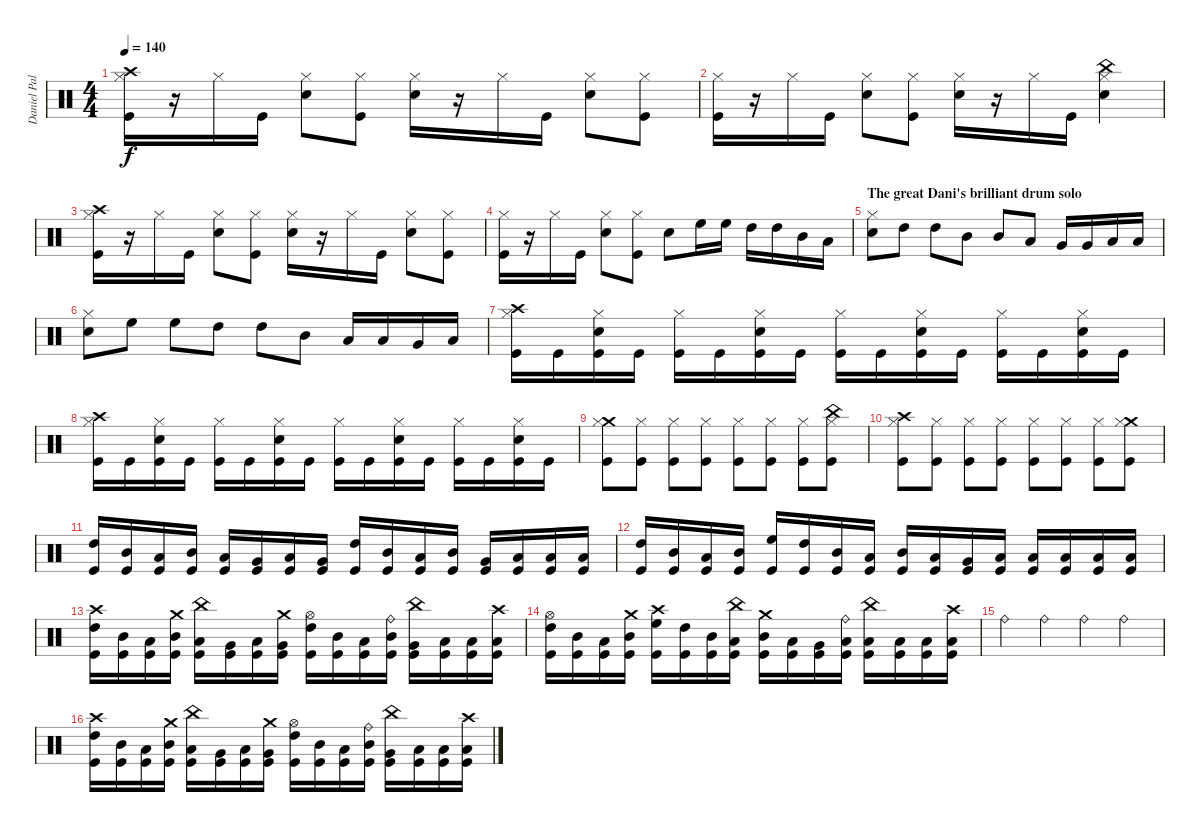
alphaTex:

\track ("Daniel Pal" "Daniel Pal") {instrument percussion}
\staff {score}
\articulation defaults
\ts (4 4)
\tempo 140
\clef neutral
\ks c
("Crash high (hit)" "Hi-Hat (closed)" "Kick (hit)").16{dy f} r.16 "Hi-Hat (closed)".16 "Kick (hit)".16 ("Hi-Hat (closed)" "Electric Snare (hit)").8 ("Hi-Hat (closed)" "Kick (hit)").8 ("Hi-Hat (closed)" "Electric Snare (hit)").16 r.16 "Hi-Hat (closed)".16 "Kick (hit)".16 ("Hi-Hat (closed)" "Electric Snare (hit)").8 ("Hi-Hat (closed)" "Kick (hit)").8 |
("Hi-Hat (closed)" "Kick (hit)").16 r.16 "Hi-Hat (closed)".16 "Kick (hit)".16 ("Hi-Hat (closed)" "Electric Snare (hit)").8 ("Hi-Hat (closed)" "Kick (hit)").8 ("Hi-Hat (closed)" "Electric Snare (hit)").16 r.16 "Hi-Hat (closed)".16 "Kick (hit)".16 ("China (hit)" "Hi-Hat (closed)" "Electric Snare (hit)").4 |
("Crash high (hit)" "Hi-Hat (closed)" "Kick (hit)").16 r.16 "Hi-Hat (closed)".16 "Kick (hit)".16 ("Hi-Hat (closed)" "Electric Snare (hit)").8 ("Hi-Hat (closed)" "Kick (hit)").8 ("Hi-Hat (closed)" "Electric Snare (hit)").16 r.16 "Hi-Hat (closed)".16 "Kick (hit)".16 ("Hi-Hat (closed)" "Electric Snare (hit)").8 ("Hi-Hat (closed)" "Kick (hit)").8 |
("Hi-Hat (closed)" "Kick (hit)").16 r.16 "Hi-Hat (closed)".16 "Kick (hit)".16 ("Hi-Hat (closed)" "Electric Snare (hit)").8 ("Hi-Hat (closed)" "Kick (hit)").8 "Electric Snare (hit)".8 "High Floor Tom (hit)".16 "High Floor Tom (hit)".16 "High Tom (hit)".16 "High Tom (hit)".16 "Mid Tom (hit)".16 "Low Tom (hit)".16 |
\section ("" "The great Dani's brilliant drum solo")
("Hi-Hat (closed)" "Electric Snare (hit)").8 "High Tom (hit)".8 "High Tom (hit)".8 "Mid Tom (hit)".8 "Mid Tom (hit)".8 "Low Tom (hit)".8 "Very Low Tom (hit)".16 "Very Low Tom (hit)".16 "Low Floor Tom (hit)".16 "Low Floor Tom (hit)".16 |
("Hi-Hat (closed)" "Electric Snare (hit)").8 "High Floor Tom (hit)".8 "High Floor Tom (hit)".8 "High Tom (hit)".8 "High Tom (hit)".8 "Mid Tom (hit)".8 "Low Tom (hit)".16 "Low Tom (hit)".16 "Very Low Tom (hit)".16 "Low Floor Tom (hit)".16 |
("Crash high (hit)" "Hi-Hat (closed)" "Kick (hit)").16 "Kick (hit)".16 ("Hi-Hat (closed)" "Electric Snare (hit)" "Kick (hit)").16 "Kick (hit)".16 ("Hi-Hat (closed)" "Kick (hit)").16 "Kick (hit)".16 ("Hi-Hat (closed)" "Electric Snare (hit)" "Kick (hit)").16 "Kick (hit)".16 ("Hi-Hat (closed)" "Kick (hit)").16 "Kick (hit)".16 ("Hi-Hat (closed)" "Electric Snare (hit)" "Kick (hit)").16 "Kick (hit)".16 ("Hi-Hat (closed)" "Kick (hit)").16 "Kick (hit)".16 ("Hi-Hat (closed)" "Electric Snare (hit)" "Kick (hit)").16 "Kick (hit)".16 |
("Crash high (hit)" "Hi-Hat (closed)" "Kick (hit)").16 "Kick (hit)".16 ("Hi-Hat (closed)" "Electric Snare (hit)" "Kick (hit)").16 "Kick (hit)".16 ("Hi-Hat (closed)" "Kick (hit)").16 "Kick (hit)".16 ("Hi-Hat (closed)" "Electric Snare (hit)" "Kick (hit)").16 "Kick (hit)".16 ("Hi-Hat (closed)" "Kick (hit)").16 "Kick (hit)".16 ("Hi-Hat (closed)" "Electric Snare (hit)" "Kick (hit)").16 "Kick (hit)".16 ("Hi-Hat (closed)" "Kick (hit)").16 "Kick (hit)".16 ("Hi-Hat (closed)" "Electric Snare (hit)" "Kick (hit)").16 "Kick (hit)".16 |
("Crash medium (hit)" "Hi-Hat (closed)" "Kick (hit)").8 ("Hi-Hat (closed)" "Kick (hit)").8 ("Hi-Hat (closed)" "Kick (hit)").8 ("Hi-Hat (closed)" "Kick (hit)").8 ("Hi-Hat (closed)" "Kick (hit)").8 ("Hi-Hat (closed)" "Kick (hit)").8 ("Hi-Hat (closed)" "Kick (hit)").8 ("China (hit)" "Hi-Hat (closed)" "Kick (hit)").8 |
("Crash high (hit)" "Hi-Hat (closed)" "Kick (hit)").8 ("Hi-Hat (closed)" "Kick (hit)").8 ("Hi-Hat (closed)" "Kick (hit)").8 ("Hi-Hat (closed)" "Kick (hit)").8 ("Hi-Hat (closed)" "Kick (hit)").8 ("Hi-Hat (closed)" "Kick (hit)").8 ("Hi-Hat (closed)" "Kick (hit)").8 ("Crash medium (hit)" "Hi-Hat (closed)" "Kick (hit)").8 |
("High Tom (hit)" "Kick (hit)").16 ("Mid Tom (hit)" "Kick (hit)").16 ("Low Tom (hit)" "Kick (hit)").16 ("Mid Tom (hit)" "Kick (hit)").16 ("Low Tom (hit)" "Kick (hit)").16 ("Very Low Tom (hit)" "Kick (hit)").16 ("Low Floor Tom (hit)" "Kick (hit)").16 ("Very Low Tom (hit)" "Kick (hit)").16 ("High Tom (hit)" "Kick (hit)").16 ("Mid Tom (hit)" "Kick (hit)").16 ("Low Tom (hit)" "Kick (hit)").16 ("Mid Tom (hit)" "Kick (hit)").16 ("Very Low Tom (hit)" "Kick (hit)").16 ("Low Floor Tom (hit)" "Kick (hit)").16 ("Low Floor Tom (hit)" "Kick (hit)").16 ("Low Floor Tom (hit)" "Kick (hit)").16 |
("High Tom (hit)" "Kick (hit)").16 ("Mid Tom (hit)" "Kick (hit)").16 ("Low Tom (hit)" "Kick (hit)").16 ("Mid Tom (hit)" "Kick (hit)").16 ("High Floor Tom (hit)" "Kick (hit)").16 ("High Tom (hit)" "Kick (hit)").16 ("Mid Tom (hit)" "Kick (hit)").16 ("Low Tom (hit)" "Kick (hit)").16 ("Mid Tom (hit)" "Kick (hit)").16 ("Low Tom (hit)" "Kick (hit)").16 ("Very Low Tom (hit)" "Kick (hit)").16 ("Low Floor Tom (hit)" "Kick (hit)").16 ("Low Floor Tom (hit)" "Kick (hit)").16 ("Low Floor Tom (hit)" "Kick (hit)").16 ("Low Floor Tom (hit)" "Kick (hit)").16 ("Low Floor Tom (hit)" "Kick (hit)").16 |
("Crash high (hit)" "High Tom (hit)" "Kick (hit)").16 ("Mid Tom (hit)" "Kick (hit)").16 ("Low Tom (hit)" "Kick (hit)").16 ("Crash medium (hit)" "Mid Tom (hit)" "Kick (hit)").16 ("China (hit)" "Low Tom (hit)" "Kick (hit)").16 ("Very Low Tom (hit)" "Kick (hit)").16 ("Low Floor Tom (hit)" "Kick (hit)").16 ("Crash medium (hit)" "Very Low Tom (hit)" "Kick (hit)").16 ("Hi-Hat (open)" "High Tom (hit)" "Kick (hit)").16 ("Mid Tom (hit)" "Kick (hit)").16 ("Low Tom (hit)" "Kick (hit)").16 ("Ride (bell)" "Mid Tom (hit)" "Kick (hit)").16 ("China (hit)" "Very Low Tom (hit)" "Kick (hit)").16 ("Low Floor Tom (hit)" "Kick (hit)").16 ("Low Floor Tom (hit)" "Kick (hit)").16 ("Crash high (hit)" "Low Floor Tom (hit)" "Kick (hit)").16 |
("Hi-Hat (open)" "High Tom (hit)" "Kick (hit)").16 ("Mid Tom (hit)" "Kick (hit)").16 ("Low Tom (hit)" "Kick (hit)").16 ("Crash medium (hit)" "Mid Tom (hit)" "Kick (hit)").16 ("Crash high (hit)" "High Floor Tom (hit)" "Kick (hit)").16 ("High Tom (hit)" "Kick (hit)").16 ("Mid Tom (hit)" "Kick (hit)").16 ("China (hit)" "Low Tom (hit)" "Kick (hit)").16 ("Crash medium (hit)" "Mid Tom (hit)" "Kick (hit)").16 ("Low Tom (hit)" "Kick (hit)").16 ("Very Low Tom (hit)" "Kick (hit)").16 ("Ride (bell)" "Low Floor Tom (hit)" "Kick (hit)").16 ("China (hit)" "Low Floor Tom (hit)" "Kick (hit)").16 ("Low Floor Tom (hit)" "Kick (hit)").16 ("Low Floor Tom (hit)" "Kick (hit)").16 ("Crash high (hit)" "Low Floor Tom (hit)" "Kick (hit)").16 |
"Ride (bell)".4 "Ride (bell)".4 "Ride (bell)".4 "Ride (bell)".4 |
("Crash high (hit)" "High Tom (hit)" "Kick (hit)").16 ("Mid Tom (hit)" "Kick (hit)").16 ("Low Tom (hit)" "Kick (hit)").16 ("Crash medium (hit)" "Mid Tom (hit)" "Kick (hit)").16 ("China (hit)" "Low Tom (hit)" "Kick (hit)").16 ("Very Low Tom (hit)" "Kick (hit)").16 ("Low Floor Tom (hit)" "Kick (hit)").16 ("Crash medium (hit)" "Very Low Tom (hit)" "Kick (hit)").16 ("Hi-Hat (open)" "High Tom (hit)" "Kick (hit)").16 ("Mid Tom (hit)" "Kick (hit)").16 ("Low Tom (hit)" "Kick (hit)").16 ("Ride (bell)" "Mid Tom (hit)" "Kick (hit)").16 ("China (hit)" "Very Low Tom (hit)" "Kick (hit)").16 ("Low Floor Tom (hit)" "Kick (hit)").16 ("Low Floor Tom (hit)" "Kick (hit)").16 ("Crash high (hit)" "Low Floor Tom (hit)" "Kick (hit)").16
